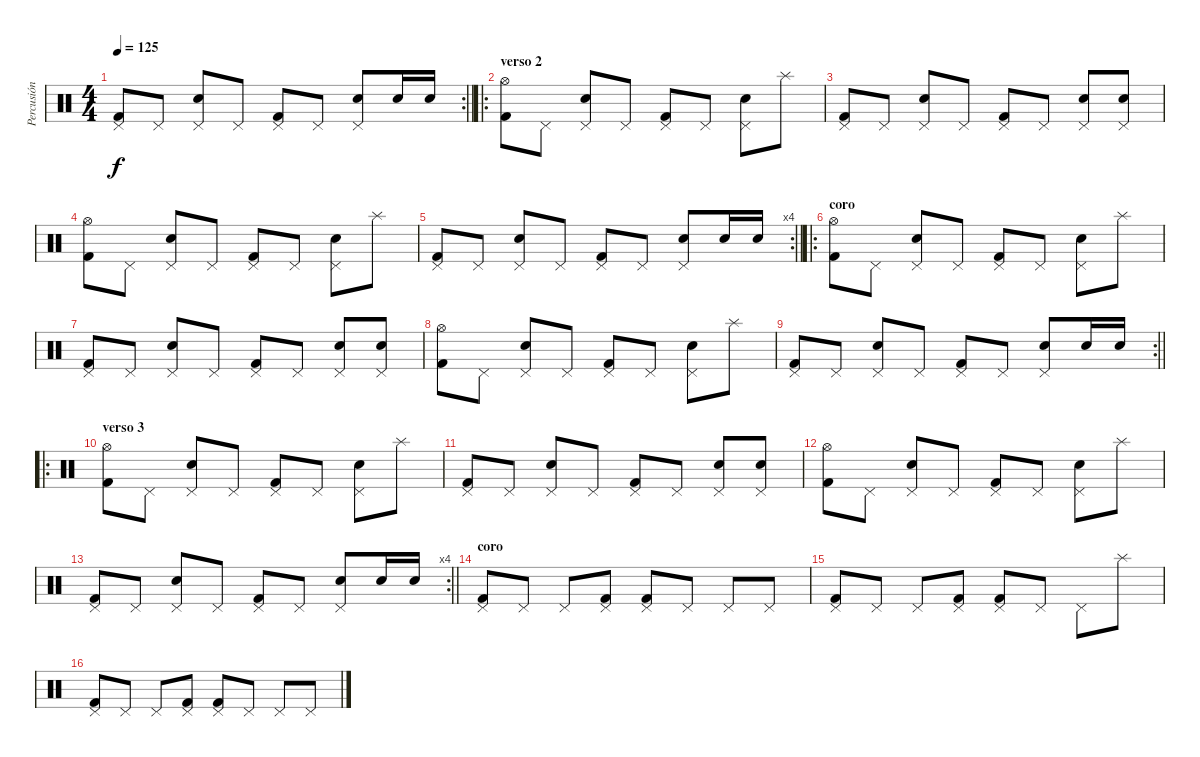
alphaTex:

\track ("Percusión" "Percusión") {instrument percussion}
\staff {score}
\articulation defaults
\rc 2
\ts (4 4)
\tempo 125
\clef neutral
\barLineRight lightlight
\ks c
("Pedal Hi-Hat (hit)" "Kick (hit) 2").8{dy f} "Pedal Hi-Hat (hit)".8 ("Pedal Hi-Hat (hit)" "Snare (hit) 2").8 "Pedal Hi-Hat (hit)".8 ("Pedal Hi-Hat (hit)" "Kick (hit) 2").8 "Pedal Hi-Hat (hit)".8 ("Pedal Hi-Hat (hit)" "Snare (hit) 2").8 "Snare (hit) 2".16 "Snare (hit) 2".16 |
\ro
\section ("" "verso 2")
("Hi-Hat (open)" "Kick (hit) 2").8 "Pedal Hi-Hat (hit)".8 ("Pedal Hi-Hat (hit)" "Snare (hit) 2").8 "Pedal Hi-Hat (hit)".8 ("Pedal Hi-Hat (hit)" "Kick (hit) 2").8 "Pedal Hi-Hat (hit)".8 ("Pedal Hi-Hat (hit)" "Snare (hit) 2").8 "Splash (hit)".8 |
("Pedal Hi-Hat (hit)" "Kick (hit) 2").8 "Pedal Hi-Hat (hit)".8 ("Pedal Hi-Hat (hit)" "Snare (hit) 2").8 "Pedal Hi-Hat (hit)".8 ("Pedal Hi-Hat (hit)" "Kick (hit) 2").8 "Pedal Hi-Hat (hit)".8 ("Pedal Hi-Hat (hit)" "Snare (hit) 2").8 ("Pedal Hi-Hat (hit)" "Snare (hit) 2").8 |
("Hi-Hat (open)" "Kick (hit) 2").8 "Pedal Hi-Hat (hit)".8 ("Pedal Hi-Hat (hit)" "Snare (hit) 2").8 "Pedal Hi-Hat (hit)".8 ("Pedal Hi-Hat (hit)" "Kick (hit) 2").8 "Pedal Hi-Hat (hit)".8 ("Pedal Hi-Hat (hit)" "Snare (hit) 2").8 "Splash (hit)".8 |
\rc 4
\barLineRight lightlight
("Pedal Hi-Hat (hit)" "Kick (hit) 2").8 "Pedal Hi-Hat (hit)".8 ("Pedal Hi-Hat (hit)" "Snare (hit) 2").8 "Pedal Hi-Hat (hit)".8 ("Pedal Hi-Hat (hit)" "Kick (hit) 2").8 "Pedal Hi-Hat (hit)".8 ("Pedal Hi-Hat (hit)" "Snare (hit) 2").8 "Snare (hit) 2".16 "Snare (hit) 2".16 |
\ro
\section ("" "coro")
("Hi-Hat (open)" "Kick (hit) 2").8 "Pedal Hi-Hat (hit)".8 ("Pedal Hi-Hat (hit)" "Snare (hit) 2").8 "Pedal Hi-Hat (hit)".8 ("Pedal Hi-Hat (hit)" "Kick (hit) 2").8 "Pedal Hi-Hat (hit)".8 ("Pedal Hi-Hat (hit)" "Snare (hit) 2").8 "Splash (hit)".8 |
("Pedal Hi-Hat (hit)" "Kick (hit) 2").8 "Pedal Hi-Hat (hit)".8 ("Pedal Hi-Hat (hit)" "Snare (hit) 2").8 "Pedal Hi-Hat (hit)".8 ("Pedal Hi-Hat (hit)" "Kick (hit) 2").8 "Pedal Hi-Hat (hit)".8 ("Pedal Hi-Hat (hit)" "Snare (hit) 2").8 ("Pedal Hi-Hat (hit)" "Snare (hit) 2").8 |
("Hi-Hat (open)" "Kick (hit) 2").8 "Pedal Hi-Hat (hit)".8 ("Pedal Hi-Hat (hit)" "Snare (hit) 2").8 "Pedal Hi-Hat (hit)".8 ("Pedal Hi-Hat (hit)" "Kick (hit) 2").8 "Pedal Hi-Hat (hit)".8 ("Pedal Hi-Hat (hit)" "Snare (hit) 2").8 "Splash (hit)".8 |
\rc 2
\barLineRight lightlight
("Pedal Hi-Hat (hit)" "Kick (hit) 2").8 "Pedal Hi-Hat (hit)".8 ("Pedal Hi-Hat (hit)" "Snare (hit) 2").8 "Pedal Hi-Hat (hit)".8 ("Pedal Hi-Hat (hit)" "Kick (hit) 2").8 "Pedal Hi-Hat (hit)".8 ("Pedal Hi-Hat (hit)" "Snare (hit) 2").8 "Snare (hit) 2".16 "Snare (hit) 2".16 |
\ro
\section ("" "verso 3")
("Hi-Hat (open)" "Kick (hit) 2").8 "Pedal Hi-Hat (hit)".8 ("Pedal Hi-Hat (hit)" "Snare (hit) 2").8 "Pedal Hi-Hat (hit)".8 ("Pedal Hi-Hat (hit)" "Kick (hit) 2").8 "Pedal Hi-Hat (hit)".8 ("Pedal Hi-Hat (hit)" "Snare (hit) 2").8 "Splash (hit)".8 |
("Pedal Hi-Hat (hit)" "Kick (hit) 2").8 "Pedal Hi-Hat (hit)".8 ("Pedal Hi-Hat (hit)" "Snare (hit) 2").8 "Pedal Hi-Hat (hit)".8 ("Pedal Hi-Hat (hit)" "Kick (hit) 2").8 "Pedal Hi-Hat (hit)".8 ("Pedal Hi-Hat (hit)" "Snare (hit) 2").8 ("Pedal Hi-Hat (hit)" "Snare (hit) 2").8 |
("Hi-Hat (open)" "Kick (hit) 2").8 "Pedal Hi-Hat (hit)".8 ("Pedal Hi-Hat (hit)" "Snare (hit) 2").8 "Pedal Hi-Hat (hit)".8 ("Pedal Hi-Hat (hit)" "Kick (hit) 2").8 "Pedal Hi-Hat (hit)".8 ("Pedal Hi-Hat (hit)" "Snare (hit) 2").8 "Splash (hit)".8 |
\rc 4
\barLineRight lightlight
("Pedal Hi-Hat (hit)" "Kick (hit) 2").8 "Pedal Hi-Hat (hit)".8 ("Pedal Hi-Hat (hit)" "Snare (hit) 2").8 "Pedal Hi-Hat (hit)".8 ("Pedal Hi-Hat (hit)" "Kick (hit) 2").8 "Pedal Hi-Hat (hit)".8 ("Pedal Hi-Hat (hit)" "Snare (hit) 2").8 "Snare (hit) 2".16 "Snare (hit) 2".16 |
\section ("" "coro")
("Pedal Hi-Hat (hit)" "Kick (hit) 2").8 "Pedal Hi-Hat (hit)".8 "Pedal Hi-Hat (hit)".8 ("Pedal Hi-Hat (hit)" "Kick (hit) 2").8 ("Pedal Hi-Hat (hit)" "Kick (hit) 2").8 "Pedal Hi-Hat (hit)".8 "Pedal Hi-Hat (hit)".8 "Pedal Hi-Hat (hit)".8 |
("Pedal Hi-Hat (hit)" "Kick (hit) 2").8 "Pedal Hi-Hat (hit)".8 "Pedal Hi-Hat (hit)".8 ("Pedal Hi-Hat (hit)" "Kick (hit) 2").8 ("Pedal Hi-Hat (hit)" "Kick (hit) 2").8 "Pedal Hi-Hat (hit)".8 "Pedal Hi-Hat (hit)".8 "Splash (hit)".8 |
("Pedal Hi-Hat (hit)" "Kick (hit) 2").8 "Pedal Hi-Hat (hit)".8 "Pedal Hi-Hat (hit)".8 ("Pedal Hi-Hat (hit)" "Kick (hit) 2").8 ("Pedal Hi-Hat (hit)" "Kick (hit) 2").8 "Pedal Hi-Hat (hit)".8 "Pedal Hi-Hat (hit)".8 "Pedal Hi-Hat (hit)".8
